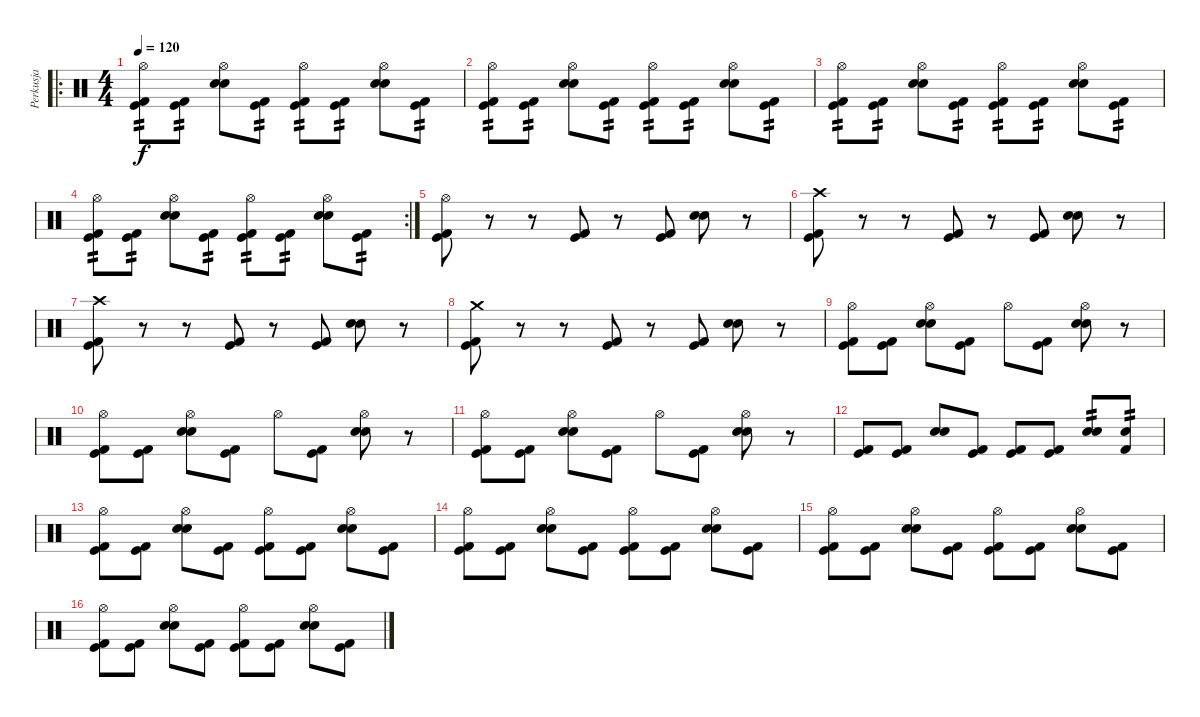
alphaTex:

\track ("Perkusja" "Perkusja") {instrument percussion}
\staff {score}
\articulation defaults
\ro
\ts (4 4)
\tempo 120
\clef neutral
\ks c
("Kick (hit) 2" "Kick (hit)" "Hi-Hat (open)").8{tp 2 dy f} ("Kick (hit) 2" "Kick (hit)").8{tp 2} ("Snare (hit) 2" "Electric Snare (hit)" "Hi-Hat (open)").8 ("Kick (hit) 2" "Kick (hit)").8{tp 2} ("Kick (hit) 2" "Kick (hit)" "Hi-Hat (open)").8{tp 2} ("Kick (hit) 2" "Kick (hit)").8{tp 2} ("Snare (hit) 2" "Electric Snare (hit)" "Hi-Hat (open)").8 ("Kick (hit) 2" "Kick (hit)").8{tp 2} |
("Kick (hit) 2" "Kick (hit)" "Hi-Hat (open)").8{tp 2} ("Kick (hit) 2" "Kick (hit)").8{tp 2} ("Snare (hit) 2" "Electric Snare (hit)" "Hi-Hat (open)").8 ("Kick (hit) 2" "Kick (hit)").8{tp 2} ("Kick (hit) 2" "Kick (hit)" "Hi-Hat (open)").8{tp 2} ("Kick (hit) 2" "Kick (hit)").8{tp 2} ("Snare (hit) 2" "Electric Snare (hit)" "Hi-Hat (open)").8 ("Kick (hit) 2" "Kick (hit)").8{tp 2} |
("Kick (hit) 2" "Kick (hit)" "Hi-Hat (open)").8{tp 2} ("Kick (hit) 2" "Kick (hit)").8{tp 2} ("Snare (hit) 2" "Electric Snare (hit)" "Hi-Hat (open)").8 ("Kick (hit) 2" "Kick (hit)").8{tp 2} ("Kick (hit) 2" "Kick (hit)" "Hi-Hat (open)").8{tp 2} ("Kick (hit) 2" "Kick (hit)").8{tp 2} ("Snare (hit) 2" "Electric Snare (hit)" "Hi-Hat (open)").8 ("Kick (hit) 2" "Kick (hit)").8{tp 2} |
\rc 2
("Kick (hit) 2" "Kick (hit)" "Hi-Hat (open)").8{tp 2} ("Kick (hit) 2" "Kick (hit)").8{tp 2} ("Snare (hit) 2" "Electric Snare (hit)" "Hi-Hat (open)").8 ("Kick (hit) 2" "Kick (hit)").8{tp 2} ("Kick (hit) 2" "Kick (hit)" "Hi-Hat (open)").8{tp 2} ("Kick (hit) 2" "Kick (hit)").8{tp 2} ("Snare (hit) 2" "Electric Snare (hit)" "Hi-Hat (open)").8 ("Kick (hit) 2" "Kick (hit)").8{tp 2} |
("Kick (hit) 2" "Kick (hit)" "Hi-Hat (open)").8 r.8 r.8 ("Kick (hit) 2" "Kick (hit)").8 r.8 ("Kick (hit) 2" "Kick (hit)").8 ("Snare (hit) 2" "Electric Snare (hit)").8 r.8 |
("Kick (hit) 2" "Kick (hit)" "Crash high (hit)").8 r.8 r.8 ("Kick (hit) 2" "Kick (hit)").8 r.8 ("Kick (hit) 2" "Kick (hit)").8 ("Snare (hit) 2" "Electric Snare (hit)").8 r.8 |
("Kick (hit) 2" "Kick (hit)" "Crash high (hit)").8 r.8 r.8 ("Kick (hit) 2" "Kick (hit)").8 r.8 ("Kick (hit) 2" "Kick (hit)").8 ("Snare (hit) 2" "Electric Snare (hit)").8 r.8 |
("Kick (hit) 2" "Kick (hit)" "Crash medium (hit)").8 r.8 r.8 ("Kick (hit) 2" "Kick (hit)").8 r.8 ("Kick (hit) 2" "Kick (hit)").8 ("Snare (hit) 2" "Electric Snare (hit)").8 r.8 |
("Kick (hit) 2" "Kick (hit)" "Hi-Hat (open)").8 ("Kick (hit) 2" "Kick (hit)").8 ("Snare (hit) 2" "Electric Snare (hit)" "Hi-Hat (open)").8 ("Kick (hit) 2" "Kick (hit)").8 "Hi-Hat (open)".8 ("Kick (hit) 2" "Kick (hit)").8 ("Snare (hit) 2" "Electric Snare (hit)" "Hi-Hat (open)").8 r.8 |
("Kick (hit) 2" "Kick (hit)" "Hi-Hat (open)").8 ("Kick (hit) 2" "Kick (hit)").8 ("Snare (hit) 2" "Electric Snare (hit)" "Hi-Hat (open)").8 ("Kick (hit) 2" "Kick (hit)").8 "Hi-Hat (open)".8 ("Kick (hit) 2" "Kick (hit)").8 ("Snare (hit) 2" "Electric Snare (hit)" "Hi-Hat (open)").8 r.8 |
("Kick (hit) 2" "Kick (hit)" "Hi-Hat (open)").8 ("Kick (hit) 2" "Kick (hit)").8 ("Snare (hit) 2" "Electric Snare (hit)" "Hi-Hat (open)").8 ("Kick (hit) 2" "Kick (hit)").8 "Hi-Hat (open)".8 ("Kick (hit) 2" "Kick (hit)").8 ("Snare (hit) 2" "Electric Snare (hit)" "Hi-Hat (open)").8 r.8 |
("Kick (hit) 2" "Kick (hit)").8 ("Kick (hit) 2" "Kick (hit)").8 ("Snare (hit) 2" "Electric Snare (hit)").8 ("Kick (hit) 2" "Kick (hit)").8 ("Kick (hit) 2" "Kick (hit)").8 ("Kick (hit) 2" "Kick (hit)").8 ("Snare (hit) 2" "Electric Snare (hit)").8{tp 2} ("Kick (hit) 2" "Electric Snare (hit)").8{tp 2} |
("Kick (hit) 2" "Kick (hit)" "Hi-Hat (open)").8 ("Kick (hit) 2" "Kick (hit)").8 ("Snare (hit) 2" "Electric Snare (hit)" "Hi-Hat (open)").8 ("Kick (hit) 2" "Kick (hit)").8 ("Kick (hit) 2" "Kick (hit)" "Hi-Hat (open)").8 ("Kick (hit) 2" "Kick (hit)").8 ("Snare (hit) 2" "Electric Snare (hit)" "Hi-Hat (open)").8 ("Kick (hit) 2" "Kick (hit)").8 |
("Kick (hit) 2" "Kick (hit)" "Hi-Hat (open)").8 ("Kick (hit) 2" "Kick (hit)").8 ("Snare (hit) 2" "Electric Snare (hit)" "Hi-Hat (open)").8 ("Kick (hit) 2" "Kick (hit)").8 ("Kick (hit) 2" "Kick (hit)" "Hi-Hat (open)").8 ("Kick (hit) 2" "Kick (hit)").8 ("Snare (hit) 2" "Electric Snare (hit)" "Hi-Hat (open)").8 ("Kick (hit) 2" "Kick (hit)").8 |
("Kick (hit) 2" "Kick (hit)" "Hi-Hat (open)").8 ("Kick (hit) 2" "Kick (hit)").8 ("Snare (hit) 2" "Electric Snare (hit)" "Hi-Hat (open)").8 ("Kick (hit) 2" "Kick (hit)").8 ("Kick (hit) 2" "Kick (hit)" "Hi-Hat (open)").8 ("Kick (hit) 2" "Kick (hit)").8 ("Snare (hit) 2" "Electric Snare (hit)" "Hi-Hat (open)").8 ("Kick (hit) 2" "Kick (hit)").8 |
("Kick (hit) 2" "Kick (hit)" "Hi-Hat (open)").8 ("Kick (hit) 2" "Kick (hit)").8 ("Snare (hit) 2" "Electric Snare (hit)" "Hi-Hat (open)").8 ("Kick (hit) 2" "Kick (hit)").8 ("Kick (hit) 2" "Kick (hit)" "Hi-Hat (open)").8 ("Kick (hit) 2" "Kick (hit)").8 ("Snare (hit) 2" "Electric Snare (hit)" "Hi-Hat (open)").8 ("Kick (hit) 2" "Kick (hit)").8
